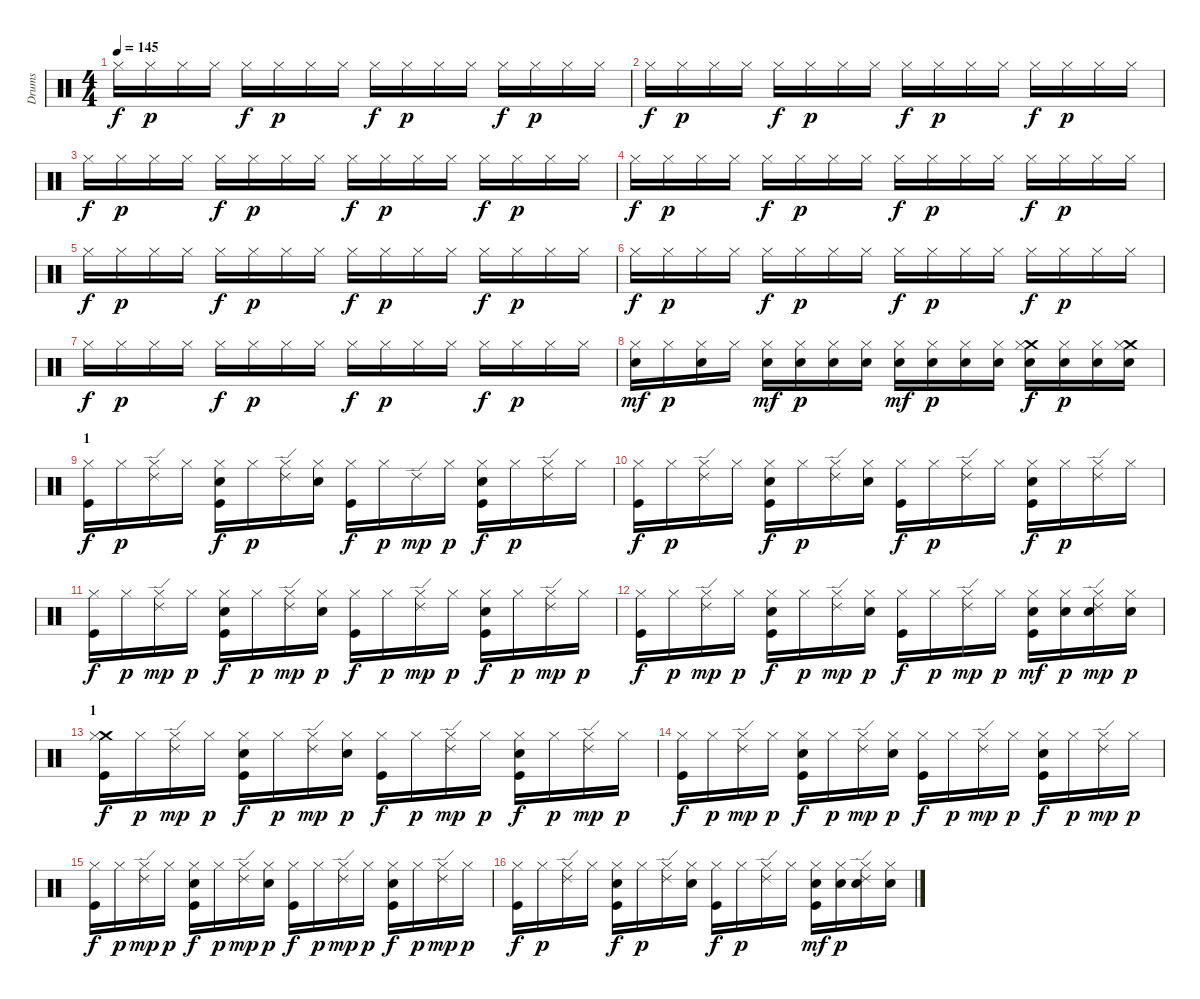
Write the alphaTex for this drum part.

\track ("Drums" "Drums") {instrument percussion}
\staff {score}
\articulation defaults
\ts (4 4)
\tempo 145
\clef neutral
\ks c "Hi-Hat (closed)".16{dy f} "Hi-Hat (closed)".16{dy p} "Hi-Hat (closed)".16 "Hi-Hat (closed)".16 "Hi-Hat (closed)".16{dy f} "Hi-Hat (closed)".16{dy p} "Hi-Hat (closed)".16 "Hi-Hat (closed)".16 "Hi-Hat (closed)".16{dy f} "Hi-Hat (closed)".16{dy p} "Hi-Hat (closed)".16 "Hi-Hat (closed)".16 "Hi-Hat (closed)".16{dy f} "Hi-Hat (closed)".16{dy p} "Hi-Hat (closed)".16 "Hi-Hat (closed)".16
|
"Hi-Hat (closed)".16{dy f} "Hi-Hat (closed)".16{dy p} "Hi-Hat (closed)".16 "Hi-Hat (closed)".16 "Hi-Hat (closed)".16{dy f} "Hi-Hat (closed)".16{dy p} "Hi-Hat (closed)".16 "Hi-Hat (closed)".16 "Hi-Hat (closed)".16{dy f} "Hi-Hat (closed)".16{dy p} "Hi-Hat (closed)".16 "Hi-Hat (closed)".16 "Hi-Hat (closed)".16{dy f} "Hi-Hat (closed)".16{dy p} "Hi-Hat (closed)".16 "Hi-Hat (closed)".16 |
"Hi-Hat (closed)".16{dy f} "Hi-Hat (closed)".16{dy p} "Hi-Hat (closed)".16 "Hi-Hat (closed)".16 "Hi-Hat (closed)".16{dy f} "Hi-Hat (closed)".16{dy p} "Hi-Hat (closed)".16 "Hi-Hat (closed)".16 "Hi-Hat (closed)".16{dy f} "Hi-Hat (closed)".16{dy p} "Hi-Hat (closed)".16 "Hi-Hat (closed)".16 "Hi-Hat (closed)".16{dy f} "Hi-Hat (closed)".16{dy p} "Hi-Hat (closed)".16 "Hi-Hat (closed)".16 |
"Hi-Hat (closed)".16{dy f} "Hi-Hat (closed)".16{dy p} "Hi-Hat (closed)".16 "Hi-Hat (closed)".16 "Hi-Hat (closed)".16{dy f} "Hi-Hat (closed)".16{dy p} "Hi-Hat (closed)".16 "Hi-Hat (closed)".16 "Hi-Hat (closed)".16{dy f} "Hi-Hat (closed)".16{dy p} "Hi-Hat (closed)".16 "Hi-Hat (closed)".16 "Hi-Hat (closed)".16{dy f} "Hi-Hat (closed)".16{dy p} "Hi-Hat (closed)".16 "Hi-Hat (closed)".16 |
"Hi-Hat (closed)".16{dy f} "Hi-Hat (closed)".16{dy p} "Hi-Hat (closed)".16 "Hi-Hat (closed)".16 "Hi-Hat (closed)".16{dy f} "Hi-Hat (closed)".16{dy p} "Hi-Hat (closed)".16 "Hi-Hat (closed)".16 "Hi-Hat (closed)".16{dy f} "Hi-Hat (closed)".16{dy p} "Hi-Hat (closed)".16 "Hi-Hat (closed)".16 "Hi-Hat (closed)".16{dy f} "Hi-Hat (closed)".16{dy p} "Hi-Hat (closed)".16 "Hi-Hat (closed)".16 |
"Hi-Hat (closed)".16{dy f} "Hi-Hat (closed)".16{dy p} "Hi-Hat (closed)".16 "Hi-Hat (closed)".16 "Hi-Hat (closed)".16{dy f} "Hi-Hat (closed)".16{dy p} "Hi-Hat (closed)".16 "Hi-Hat (closed)".16 "Hi-Hat (closed)".16{dy f} "Hi-Hat (closed)".16{dy p} "Hi-Hat (closed)".16 "Hi-Hat (closed)".16 "Hi-Hat (closed)".16{dy f} "Hi-Hat (closed)".16{dy p} "Hi-Hat (closed)".16 "Hi-Hat (closed)".16 |
"Hi-Hat (closed)".16{dy f} "Hi-Hat (closed)".16{dy p} "Hi-Hat (closed)".16 "Hi-Hat (closed)".16 "Hi-Hat (closed)".16{dy f} "Hi-Hat (closed)".16{dy p} "Hi-Hat (closed)".16 "Hi-Hat (closed)".16 "Hi-Hat (closed)".16{dy f} "Hi-Hat (closed)".16{dy p} "Hi-Hat (closed)".16 "Hi-Hat (closed)".16 "Hi-Hat (closed)".16{dy f} "Hi-Hat (closed)".16{dy p} "Hi-Hat (closed)".16 "Hi-Hat (closed)".16 |
("Electric Snare (hit)" "Hi-Hat (closed)").16{dy mf} "Hi-Hat (closed)".16{dy p} ("Electric Snare (hit)" "Hi-Hat (closed)").16 "Hi-Hat (closed)".16 ("Electric Snare (hit)" "Hi-Hat (closed)").16{dy mf} ("Electric Snare (hit)" "Hi-Hat (closed)").16{dy p} ("Electric Snare (hit)" "Hi-Hat (closed)").16 ("Electric Snare (hit)" "Hi-Hat (closed)").16 ("Electric Snare (hit)" "Hi-Hat (closed)").16{dy mf} ("Electric Snare (hit)" "Hi-Hat (closed)").16{dy p} ("Electric Snare (hit)" "Hi-Hat (closed)").16 ("Electric Snare (hit)" "Hi-Hat (closed)").16 ("Crash medium (hit)" "Electric Snare (hit)" "Hi-Hat (closed)").16{dy f} ("Electric Snare (hit)" "Hi-Hat (closed)").16{dy p} ("Electric Snare (hit)" "Hi-Hat (closed)").16 ("Crash medium (hit)" "Electric Snare (hit)" "Hi-Hat (closed)").16 |
\section ("" "1")
("Kick (hit)" "Hi-Hat (closed)").16{dy f} "Hi-Hat (closed)".16{dy p} ("Ride (edge) 2" "Hi-Hat (closed)").16 "Hi-Hat (closed)".16 ("Electric Snare (hit)" "Kick (hit)" "Hi-Hat (closed)").16{dy f} "Hi-Hat (closed)".16{dy p} ("Ride (edge) 2" "Hi-Hat (closed)").16 ("Electric Snare (hit)" "Hi-Hat (closed)").16 ("Kick (hit)" "Hi-Hat (closed)").16{dy f} "Hi-Hat (closed)".16{dy p} "Ride (edge) 2".16{dy mp} "Hi-Hat (closed)".16{dy p} ("Electric Snare (hit)" "Kick (hit)" "Hi-Hat (closed)").16{dy f} "Hi-Hat (closed)".16{dy p} ("Ride (edge) 2" "Hi-Hat (closed)").16 "Hi-Hat (closed)".16 |
("Kick (hit)" "Hi-Hat (closed)").16{dy f} "Hi-Hat (closed)".16{dy p} ("Ride (edge) 2" "Hi-Hat (closed)").16 "Hi-Hat (closed)".16 ("Electric Snare (hit)" "Kick (hit)" "Hi-Hat (closed)").16{dy f} "Hi-Hat (closed)".16{dy p} ("Ride (edge) 2" "Hi-Hat (closed)").16 ("Electric Snare (hit)" "Hi-Hat (closed)").16 ("Kick (hit)" "Hi-Hat (closed)").16{dy f} "Hi-Hat (closed)".16{dy p} ("Ride (edge) 2" "Hi-Hat (closed)").16 "Hi-Hat (closed)".16 ("Electric Snare (hit)" "Kick (hit)" "Hi-Hat (closed)").16{dy f} "Hi-Hat (closed)".16{dy p} ("Ride (edge) 2" "Hi-Hat (closed)").16 "Hi-Hat (closed)".16 |
("Kick (hit)" "Hi-Hat (closed)").16{dy f} "Hi-Hat (closed)".16{dy p} ("Hi-Hat (closed)" "Ride (edge) 2").16{dy mp} "Hi-Hat (closed)".16{dy p} ("Electric Snare (hit)" "Kick (hit)" "Hi-Hat (closed)").16{dy f} "Hi-Hat (closed)".16{dy p} ("Hi-Hat (closed)" "Ride (edge) 2").16{dy mp} ("Electric Snare (hit)" "Hi-Hat (closed)").16{dy p} ("Kick (hit)" "Hi-Hat (closed)").16{dy f} "Hi-Hat (closed)".16{dy p} ("Hi-Hat (closed)" "Ride (edge) 2").16{dy mp} "Hi-Hat (closed)".16{dy p} ("Electric Snare (hit)" "Kick (hit)" "Hi-Hat (closed)").16{dy f} "Hi-Hat (closed)".16{dy p} ("Hi-Hat (closed)" "Ride (edge) 2").16{dy mp} "Hi-Hat (closed)".16{dy p} |
("Kick (hit)" "Hi-Hat (closed)").16{dy f} "Hi-Hat (closed)".16{dy p} ("Hi-Hat (closed)" "Ride (edge) 2").16{dy mp} "Hi-Hat (closed)".16{dy p} ("Electric Snare (hit)" "Kick (hit)" "Hi-Hat (closed)").16{dy f} "Hi-Hat (closed)".16{dy p} ("Hi-Hat (closed)" "Ride (edge) 2").16{dy mp} ("Electric Snare (hit)" "Hi-Hat (closed)").16{dy p} ("Kick (hit)" "Hi-Hat (closed)").16{dy f} "Hi-Hat (closed)".16{dy p} ("Hi-Hat (closed)" "Ride (edge) 2").16{dy mp} "Hi-Hat (closed)".16{dy p} ("Electric Snare (hit)" "Kick (hit)" "Hi-Hat (closed)").16{dy mf} ("Electric Snare (hit)" "Hi-Hat (closed)").16{dy p} ("Electric Snare (hit)" "Hi-Hat (closed)" "Ride (edge) 2").16{dy mp} ("Electric Snare (hit)" "Hi-Hat (closed)").16{dy p} |
\section ("" "1")
("Crash medium (hit)" "Kick (hit)" "Hi-Hat (closed)").16{dy f} "Hi-Hat (closed)".16{dy p} ("Hi-Hat (closed)" "Ride (edge) 2").16{dy mp} "Hi-Hat (closed)".16{dy p} ("Electric Snare (hit)" "Kick (hit)" "Hi-Hat (closed)").16{dy f} "Hi-Hat (closed)".16{dy p} ("Hi-Hat (closed)" "Ride (edge) 2").16{dy mp} ("Electric Snare (hit)" "Hi-Hat (closed)").16{dy p} ("Kick (hit)" "Hi-Hat (closed)").16{dy f} "Hi-Hat (closed)".16{dy p} ("Hi-Hat (closed)" "Ride (edge) 2").16{dy mp} "Hi-Hat (closed)".16{dy p} ("Electric Snare (hit)" "Kick (hit)" "Hi-Hat (closed)").16{dy f} "Hi-Hat (closed)".16{dy p} ("Hi-Hat (closed)" "Ride (edge) 2").16{dy mp} "Hi-Hat (closed)".16{dy p} |
("Kick (hit)" "Hi-Hat (closed)").16{dy f} "Hi-Hat (closed)".16{dy p} ("Hi-Hat (closed)" "Ride (edge) 2").16{dy mp} "Hi-Hat (closed)".16{dy p} ("Electric Snare (hit)" "Kick (hit)" "Hi-Hat (closed)").16{dy f} "Hi-Hat (closed)".16{dy p} ("Hi-Hat (closed)" "Ride (edge) 2").16{dy mp} ("Electric Snare (hit)" "Hi-Hat (closed)").16{dy p} ("Kick (hit)" "Hi-Hat (closed)").16{dy f} "Hi-Hat (closed)".16{dy p} ("Hi-Hat (closed)" "Ride (edge) 2").16{dy mp} "Hi-Hat (closed)".16{dy p} ("Electric Snare (hit)" "Kick (hit)" "Hi-Hat (closed)").16{dy f} "Hi-Hat (closed)".16{dy p} ("Hi-Hat (closed)" "Ride (edge) 2").16{dy mp} "Hi-Hat (closed)".16{dy p} |
("Kick (hit)" "Hi-Hat (closed)").16{dy f} "Hi-Hat (closed)".16{dy p} ("Hi-Hat (closed)" "Ride (edge) 2").16{dy mp} "Hi-Hat (closed)".16{dy p} ("Electric Snare (hit)" "Kick (hit)" "Hi-Hat (closed)").16{dy f} "Hi-Hat (closed)".16{dy p} ("Hi-Hat (closed)" "Ride (edge) 2").16{dy mp} ("Electric Snare (hit)" "Hi-Hat (closed)").16{dy p} ("Kick (hit)" "Hi-Hat (closed)").16{dy f} "Hi-Hat (closed)".16{dy p} ("Hi-Hat (closed)" "Ride (edge) 2").16{dy mp} "Hi-Hat (closed)".16{dy p} ("Electric Snare (hit)" "Kick (hit)" "Hi-Hat (closed)").16{dy f} "Hi-Hat (closed)".16{dy p} ("Hi-Hat (closed)" "Ride (edge) 2").16{dy mp} "Hi-Hat (closed)".16{dy p} |
("Kick (hit)" "Hi-Hat (closed)").16{dy f} "Hi-Hat (closed)".16{dy p} ("Ride (edge) 2" "Hi-Hat (closed)").16 "Hi-Hat (closed)".16 ("Electric Snare (hit)" "Kick (hit)" "Hi-Hat (closed)").16{dy f} "Hi-Hat (closed)".16{dy p} ("Ride (edge) 2" "Hi-Hat (closed)").16 ("Electric Snare (hit)" "Hi-Hat (closed)").16 ("Kick (hit)" "Hi-Hat (closed)").16{dy f} "Hi-Hat (closed)".16{dy p} ("Ride (edge) 2" "Hi-Hat (closed)").16 "Hi-Hat (closed)".16 ("Electric Snare (hit)" "Kick (hit)" "Hi-Hat (closed)").16{dy mf} ("Electric Snare (hit)" "Hi-Hat (closed)").16{dy p} ("Electric Snare (hit)" "Ride (edge) 2" "Hi-Hat (closed)").16 ("Electric Snare (hit)" "Hi-Hat (closed)").16
